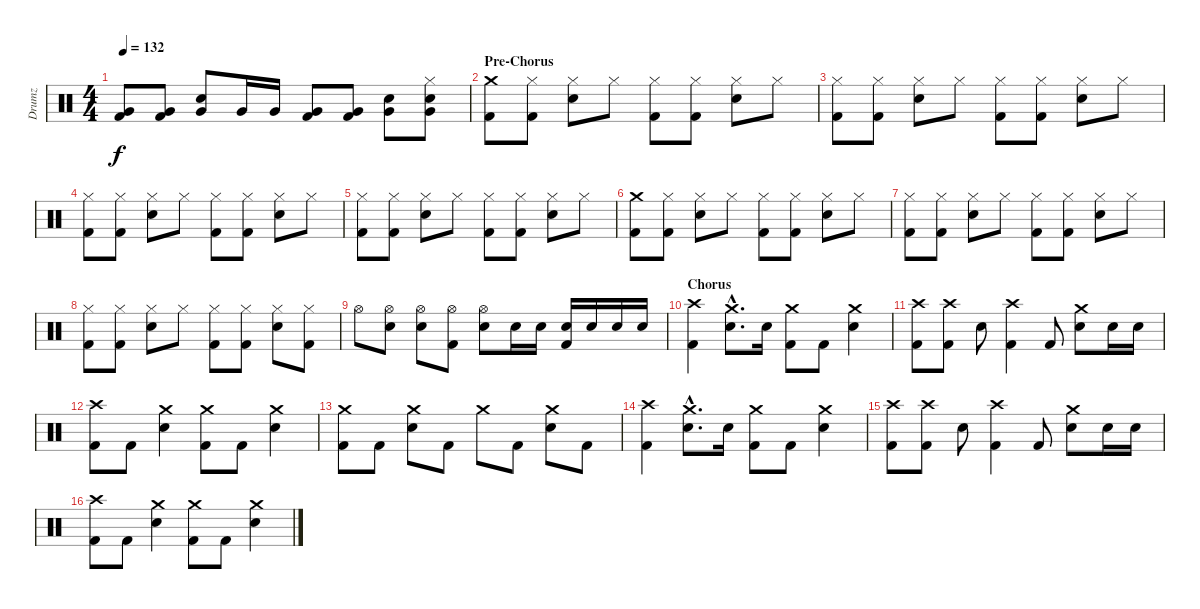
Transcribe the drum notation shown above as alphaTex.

\track ("Drumz" "Drumz") {instrument percussion}
\staff {score}
\articulation defaults
\ts (4 4)
\tempo 132
\clef neutral
\ks c
("Very Low Tom (hit)" "Kick (hit) 2").8{dy f} ("Very Low Tom (hit)" "Kick (hit) 2").8 ("Snare (hit) 2" "Very Low Tom (hit)").8 "Very Low Tom (hit)".16 "Very Low Tom (hit)".16 ("Very Low Tom (hit)" "Kick (hit) 2").8 ("Very Low Tom (hit)" "Kick (hit) 2").8 ("Snare (hit) 2" "Very Low Tom (hit)").8 ("Hi-Hat (closed)" "Snare (hit) 2" "Very Low Tom (hit)").8 |
\section ("" "Pre-Chorus")
("Crash medium (hit)" "Kick (hit) 2").8 ("Hi-Hat (closed)" "Kick (hit) 2").8 ("Hi-Hat (closed)" "Snare (hit) 2").8 "Hi-Hat (closed)".8 ("Hi-Hat (closed)" "Kick (hit) 2").8 ("Hi-Hat (closed)" "Kick (hit) 2").8 ("Hi-Hat (closed)" "Snare (hit) 2").8 "Hi-Hat (closed)".8 |
("Hi-Hat (closed)" "Kick (hit) 2").8 ("Hi-Hat (closed)" "Kick (hit) 2").8 ("Hi-Hat (closed)" "Snare (hit) 2").8 "Hi-Hat (closed)".8 ("Hi-Hat (closed)" "Kick (hit) 2").8 ("Hi-Hat (closed)" "Kick (hit) 2").8 ("Hi-Hat (closed)" "Snare (hit) 2").8 "Hi-Hat (closed)".8 |
("Hi-Hat (closed)" "Kick (hit) 2").8 ("Hi-Hat (closed)" "Kick (hit) 2").8 ("Hi-Hat (closed)" "Snare (hit) 2").8 "Hi-Hat (closed)".8 ("Hi-Hat (closed)" "Kick (hit) 2").8 ("Hi-Hat (closed)" "Kick (hit) 2").8 ("Hi-Hat (closed)" "Snare (hit) 2").8 "Hi-Hat (closed)".8 |
("Hi-Hat (closed)" "Kick (hit) 2").8 ("Hi-Hat (closed)" "Kick (hit) 2").8 ("Hi-Hat (closed)" "Snare (hit) 2").8 "Hi-Hat (closed)".8 ("Hi-Hat (closed)" "Kick (hit) 2").8 ("Hi-Hat (closed)" "Kick (hit) 2").8 ("Hi-Hat (closed)" "Snare (hit) 2").8 "Hi-Hat (closed)".8 |
("Crash medium (hit)" "Kick (hit) 2").8 ("Hi-Hat (closed)" "Kick (hit) 2").8 ("Hi-Hat (closed)" "Snare (hit) 2").8 "Hi-Hat (closed)".8 ("Hi-Hat (closed)" "Kick (hit) 2").8 ("Hi-Hat (closed)" "Kick (hit) 2").8 ("Hi-Hat (closed)" "Snare (hit) 2").8 "Hi-Hat (closed)".8 |
("Hi-Hat (closed)" "Kick (hit) 2").8 ("Hi-Hat (closed)" "Kick (hit) 2").8 ("Hi-Hat (closed)" "Snare (hit) 2").8 "Hi-Hat (closed)".8 ("Hi-Hat (closed)" "Kick (hit) 2").8 ("Hi-Hat (closed)" "Kick (hit) 2").8 ("Hi-Hat (closed)" "Snare (hit) 2").8 "Hi-Hat (closed)".8 |
("Hi-Hat (closed)" "Kick (hit) 2").8 ("Hi-Hat (closed)" "Kick (hit) 2").8 ("Hi-Hat (closed)" "Snare (hit) 2").8 "Hi-Hat (closed)".8 ("Hi-Hat (closed)" "Kick (hit) 2").8 ("Hi-Hat (closed)" "Kick (hit) 2").8 ("Hi-Hat (closed)" "Snare (hit) 2").8 ("Hi-Hat (closed)" "Kick (hit) 2").8 |
"Hi-Hat (open)".8 ("Hi-Hat (open)" "Snare (hit) 2").8 ("Hi-Hat (open)" "Snare (hit) 2").8 ("Hi-Hat (open)" "Kick (hit) 2").8 ("Hi-Hat (open)" "Snare (hit) 2").8 "Snare (hit) 2".16 "Snare (hit) 2".16 ("Snare (hit) 2" "Kick (hit) 2").16 "Snare (hit) 2".16 "Snare (hit) 2".16 "Snare (hit) 2".16 |
\section ("" "Chorus")
("Crash high (hit)" "Kick (hit) 2").4 ("Crash medium (hit)"{hac} "Snare (hit) 2"{hac}).8{d} "Snare (hit) 2".16 ("Crash medium (hit)" "Kick (hit) 2").8 "Kick (hit) 2".8 ("Crash medium (hit)" "Snare (hit) 2").4 |
("Crash high (hit)" "Kick (hit) 2").8 ("Crash high (hit)" "Kick (hit) 2").8 "Snare (hit) 2".8 ("Crash high (hit)" "Kick (hit) 2").4 "Kick (hit) 2".8 ("Crash medium (hit)" "Snare (hit) 2").8 "Snare (hit) 2".16 "Snare (hit) 2".16 |
("Crash high (hit)" "Kick (hit) 2").8 "Kick (hit) 2".8 ("Crash medium (hit)" "Snare (hit) 2").4 ("Crash medium (hit)" "Kick (hit) 2").8 "Kick (hit) 2".8 ("Crash medium (hit)" "Snare (hit) 2").4 |
("Crash medium (hit)" "Kick (hit) 2").8 "Kick (hit) 2".8 ("Crash medium (hit)" "Snare (hit) 2").8 "Kick (hit) 2".8 "Crash medium (hit)".8 "Kick (hit) 2".8 ("Crash medium (hit)" "Snare (hit) 2").8 "Kick (hit) 2".8 |
("Crash high (hit)" "Kick (hit) 2").4 ("Crash medium (hit)"{hac} "Snare (hit) 2"{hac}).8{d} "Snare (hit) 2".16 ("Crash medium (hit)" "Kick (hit) 2").8 "Kick (hit) 2".8 ("Crash medium (hit)" "Snare (hit) 2").4 |
("Crash high (hit)" "Kick (hit) 2").8 ("Crash high (hit)" "Kick (hit) 2").8 "Snare (hit) 2".8 ("Crash high (hit)" "Kick (hit) 2").4 "Kick (hit) 2".8 ("Crash medium (hit)" "Snare (hit) 2").8 "Snare (hit) 2".16 "Snare (hit) 2".16 |
("Crash high (hit)" "Kick (hit) 2").8 "Kick (hit) 2".8 ("Crash medium (hit)" "Snare (hit) 2").4 ("Crash medium (hit)" "Kick (hit) 2").8 "Kick (hit) 2".8 ("Crash medium (hit)" "Snare (hit) 2").4
